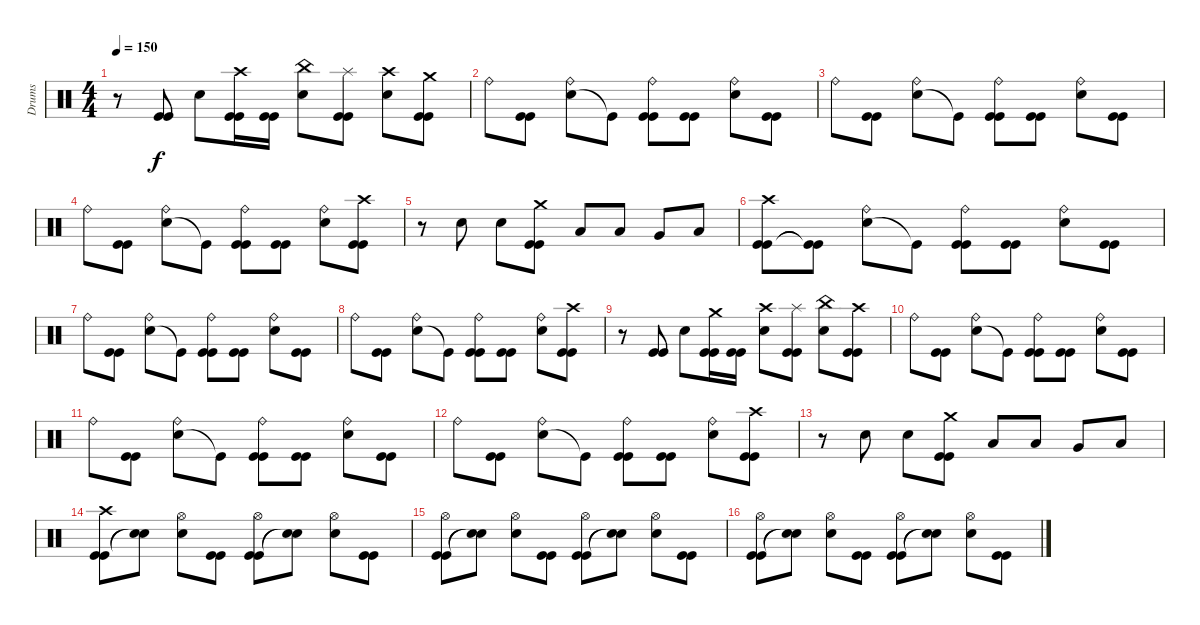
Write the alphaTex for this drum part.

\track ("Drums" "Drums") {instrument percussion}
\staff {score}
\articulation defaults
\ts (4 4)
\tempo 150
\clef neutral
\ks c
r.8{dy f} ("Kick (hit)" "Kick (hit)").8 "Snare (hit) 2".8 ("Kick (hit)" "Kick (hit)" "Crash high (hit)").16 ("Kick (hit)" "Kick (hit)").16 ("Snare (hit) 2" "China (hit)").8 ("Kick (hit)" "Kick (hit)" "Splash (hit)").8 ("Snare (hit) 2" "Crash high (hit)").8 ("Kick (hit)" "Kick (hit)" "Crash medium (hit)").8 |
"Ride (bell)".8 ("Kick (hit)" "Kick (hit)").8 ("Snare (hit) 2" "Ride (bell)").8 "Kick (hit)"{t}.8 ("Kick (hit)" "Kick (hit)" "Ride (bell)").8 ("Kick (hit)" "Kick (hit)").8 ("Snare (hit) 2" "Ride (bell)").8 ("Kick (hit)" "Kick (hit)").8 |
"Ride (bell)".8 ("Kick (hit)" "Kick (hit)").8 ("Snare (hit) 2" "Ride (bell)").8 "Kick (hit)"{t}.8 ("Kick (hit)" "Kick (hit)" "Ride (bell)").8 ("Kick (hit)" "Kick (hit)").8 ("Snare (hit) 2" "Ride (bell)").8 ("Kick (hit)" "Kick (hit)").8 |
"Ride (bell)".8 ("Kick (hit)" "Kick (hit)").8 ("Snare (hit) 2" "Ride (bell)").8 "Kick (hit)"{t}.8 ("Kick (hit)" "Kick (hit)" "Ride (bell)").8 ("Kick (hit)" "Kick (hit)").8 ("Snare (hit) 2" "Ride (bell)").8 ("Kick (hit)" "Kick (hit)" "Crash high (hit)").8 |
r.8 "Snare (hit) 2".8 "Snare (hit) 2".8 ("Kick (hit)" "Kick (hit)" "Crash medium (hit)").8 "Low Tom (hit)".8 "Low Tom (hit)".8 "Very Low Tom (hit)".8 "Low Floor Tom (hit)".8 |
("Kick (hit)" "Kick (hit)" "Crash high (hit)").8 ("Kick (hit)"{t} "Kick (hit)"{t}).8 ("Snare (hit) 2" "Ride (bell)").8 "Kick (hit)"{t}.8 ("Kick (hit)" "Kick (hit)" "Ride (bell)").8 ("Kick (hit)" "Kick (hit)").8 ("Snare (hit) 2" "Ride (bell)").8 ("Kick (hit)" "Kick (hit)").8 |
"Ride (bell)".8 ("Kick (hit)" "Kick (hit)").8 ("Snare (hit) 2" "Ride (bell)").8 "Kick (hit)"{t}.8 ("Kick (hit)" "Kick (hit)" "Ride (bell)").8 ("Kick (hit)" "Kick (hit)").8 ("Snare (hit) 2" "Ride (bell)").8 ("Kick (hit)" "Kick (hit)").8 |
"Ride (bell)".8 ("Kick (hit)" "Kick (hit)").8 ("Snare (hit) 2" "Ride (bell)").8 "Kick (hit)"{t}.8 ("Kick (hit)" "Kick (hit)" "Ride (bell)").8 ("Kick (hit)" "Kick (hit)").8 ("Snare (hit) 2" "Ride (bell)").8 ("Kick (hit)" "Kick (hit)" "Crash high (hit)").8 |
r.8 ("Kick (hit)" "Kick (hit)").8 "Snare (hit) 2".8 ("Kick (hit)" "Kick (hit)" "Crash medium (hit)").16 ("Kick (hit)" "Kick (hit)").16 ("Snare (hit) 2" "Crash high (hit)").8 ("Kick (hit)" "Kick (hit)" "Splash (hit)").8 ("Snare (hit) 2" "China (hit)").8 ("Kick (hit)" "Kick (hit)" "Crash high (hit)").8 |
"Ride (bell)".8 ("Kick (hit)" "Kick (hit)").8 ("Snare (hit) 2" "Ride (bell)").8 "Kick (hit)"{t}.8 ("Kick (hit)" "Kick (hit)" "Ride (bell)").8 ("Kick (hit)" "Kick (hit)").8 ("Snare (hit) 2" "Ride (bell)").8 ("Kick (hit)" "Kick (hit)").8 |
"Ride (bell)".8 ("Kick (hit)" "Kick (hit)").8 ("Snare (hit) 2" "Ride (bell)").8 "Kick (hit)"{t}.8 ("Kick (hit)" "Kick (hit)" "Ride (bell)").8 ("Kick (hit)" "Kick (hit)").8 ("Snare (hit) 2" "Ride (bell)").8 ("Kick (hit)" "Kick (hit)").8 |
"Ride (bell)".8 ("Kick (hit)" "Kick (hit)").8 ("Snare (hit) 2" "Ride (bell)").8 "Kick (hit)"{t}.8 ("Kick (hit)" "Kick (hit)" "Ride (bell)").8 ("Kick (hit)" "Kick (hit)").8 ("Snare (hit) 2" "Ride (bell)").8 ("Kick (hit)" "Kick (hit)" "Crash high (hit)").8 |
r.8 "Snare (hit) 2".8 "Snare (hit) 2".8 ("Kick (hit)" "Kick (hit)" "Crash medium (hit)").8 "Low Tom (hit)".8 "Low Tom (hit)".8 "Very Low Tom (hit)".8 "Low Floor Tom (hit)".8 |
("Kick (hit)" "Kick (hit)" "Crash high (hit)").8 ("Snare (hit)"{t} "Snare (hit)"{t}).8 ("Snare (hit) 2" "Hi-Hat (open)").8 ("Kick (hit)" "Kick (hit)").8 ("Kick (hit)" "Kick (hit)" "Hi-Hat (open)").8 ("Snare (hit)"{t} "Snare (hit)"{t}).8 ("Snare (hit) 2" "Hi-Hat (open)").8 ("Kick (hit)" "Kick (hit)").8 |
("Kick (hit)" "Kick (hit)" "Hi-Hat (open)").8 ("Snare (hit)"{t} "Snare (hit)"{t}).8 ("Snare (hit) 2" "Hi-Hat (open)").8 ("Kick (hit)" "Kick (hit)").8 ("Kick (hit)" "Kick (hit)" "Hi-Hat (open)").8 ("Snare (hit)"{t} "Snare (hit)"{t}).8 ("Snare (hit) 2" "Hi-Hat (open)").8 ("Kick (hit)" "Kick (hit)").8 |
("Kick (hit)" "Kick (hit)" "Hi-Hat (open)").8 ("Snare (hit)"{t} "Snare (hit)"{t}).8 ("Snare (hit) 2" "Hi-Hat (open)").8 ("Kick (hit)" "Kick (hit)").8 ("Kick (hit)" "Kick (hit)" "Hi-Hat (open)").8 ("Snare (hit)"{t} "Snare (hit)"{t}).8 ("Snare (hit) 2" "Hi-Hat (open)").8 ("Kick (hit)" "Kick (hit)").8
